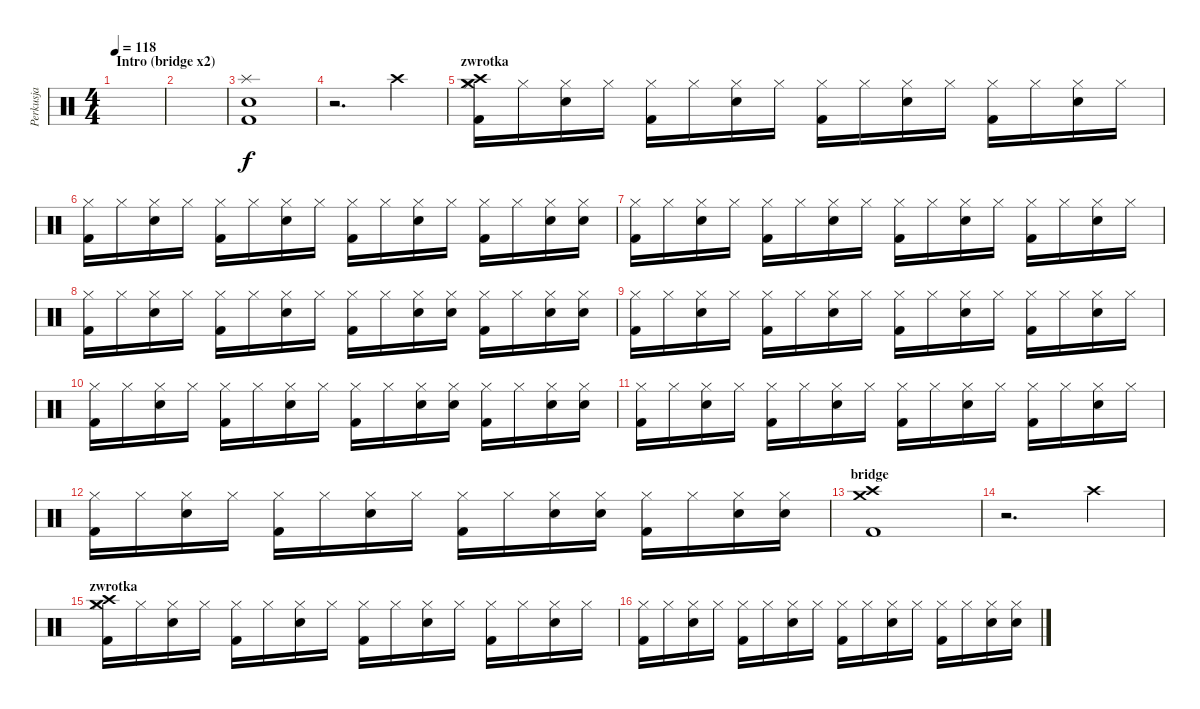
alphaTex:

\track ("Perkusja" "Perkusja") {instrument percussion}
\staff {score}
\articulation defaults
\ts (4 4)
\section ("" "Intro (bridge x2)")
\tempo 118
\clef neutral
\ks c
|
|
("Splash (hit)" "Snare (hit) 2" "Kick (hit) 2").1 |
r.2{d} "Crash high (hit)".4 |
\section ("" "zwrotka")
("Crash medium (hit)" "Crash high (hit)" "Kick (hit) 2" "Hi-Hat (closed)").16 "Hi-Hat (closed)".16 ("Electric Snare (hit)" "Hi-Hat (closed)").16 "Hi-Hat (closed)".16 ("Kick (hit) 2" "Hi-Hat (closed)").16 "Hi-Hat (closed)".16 ("Electric Snare (hit)" "Hi-Hat (closed)").16 "Hi-Hat (closed)".16 ("Kick (hit) 2" "Hi-Hat (closed)").16 "Hi-Hat (closed)".16 ("Electric Snare (hit)" "Hi-Hat (closed)").16 "Hi-Hat (closed)".16 ("Kick (hit) 2" "Hi-Hat (closed)").16 "Hi-Hat (closed)".16 ("Electric Snare (hit)" "Hi-Hat (closed)").16 "Hi-Hat (closed)".16 |
("Kick (hit) 2" "Hi-Hat (closed)").16 "Hi-Hat (closed)".16 ("Electric Snare (hit)" "Hi-Hat (closed)").16 "Hi-Hat (closed)".16 ("Kick (hit) 2" "Hi-Hat (closed)").16 "Hi-Hat (closed)".16 ("Electric Snare (hit)" "Hi-Hat (closed)").16 "Hi-Hat (closed)".16 ("Kick (hit) 2" "Hi-Hat (closed)").16 "Hi-Hat (closed)".16 ("Electric Snare (hit)" "Hi-Hat (closed)").16 "Hi-Hat (closed)".16 ("Kick (hit) 2" "Hi-Hat (closed)").16 "Hi-Hat (closed)".16 ("Electric Snare (hit)" "Hi-Hat (closed)").16 ("Electric Snare (hit)" "Hi-Hat (closed)").16 |
("Kick (hit) 2" "Hi-Hat (closed)").16 "Hi-Hat (closed)".16 ("Electric Snare (hit)" "Hi-Hat (closed)").16 "Hi-Hat (closed)".16 ("Kick (hit) 2" "Hi-Hat (closed)").16 "Hi-Hat (closed)".16 ("Electric Snare (hit)" "Hi-Hat (closed)").16 "Hi-Hat (closed)".16 ("Kick (hit) 2" "Hi-Hat (closed)").16 "Hi-Hat (closed)".16 ("Electric Snare (hit)" "Hi-Hat (closed)").16 "Hi-Hat (closed)".16 ("Kick (hit) 2" "Hi-Hat (closed)").16 "Hi-Hat (closed)".16 ("Electric Snare (hit)" "Hi-Hat (closed)").16 "Hi-Hat (closed)".16 |
("Kick (hit) 2" "Hi-Hat (closed)").16 "Hi-Hat (closed)".16 ("Electric Snare (hit)" "Hi-Hat (closed)").16 "Hi-Hat (closed)".16 ("Kick (hit) 2" "Hi-Hat (closed)").16 "Hi-Hat (closed)".16 ("Electric Snare (hit)" "Hi-Hat (closed)").16 "Hi-Hat (closed)".16 ("Kick (hit) 2" "Hi-Hat (closed)").16 "Hi-Hat (closed)".16 ("Electric Snare (hit)" "Hi-Hat (closed)").16 ("Electric Snare (hit)" "Hi-Hat (closed)").16 ("Kick (hit) 2" "Hi-Hat (closed)").16 "Hi-Hat (closed)".16 ("Electric Snare (hit)" "Hi-Hat (closed)").16 ("Electric Snare (hit)" "Hi-Hat (closed)").16 |
("Kick (hit) 2" "Hi-Hat (closed)").16 "Hi-Hat (closed)".16 ("Electric Snare (hit)" "Hi-Hat (closed)").16 "Hi-Hat (closed)".16 ("Kick (hit) 2" "Hi-Hat (closed)").16 "Hi-Hat (closed)".16 ("Electric Snare (hit)" "Hi-Hat (closed)").16 "Hi-Hat (closed)".16 ("Kick (hit) 2" "Hi-Hat (closed)").16 "Hi-Hat (closed)".16 ("Electric Snare (hit)" "Hi-Hat (closed)").16 "Hi-Hat (closed)".16 ("Kick (hit) 2" "Hi-Hat (closed)").16 "Hi-Hat (closed)".16 ("Electric Snare (hit)" "Hi-Hat (closed)").16 "Hi-Hat (closed)".16 |
("Kick (hit) 2" "Hi-Hat (closed)").16 "Hi-Hat (closed)".16 ("Electric Snare (hit)" "Hi-Hat (closed)").16 "Hi-Hat (closed)".16 ("Kick (hit) 2" "Hi-Hat (closed)").16 "Hi-Hat (closed)".16 ("Electric Snare (hit)" "Hi-Hat (closed)").16 "Hi-Hat (closed)".16 ("Kick (hit) 2" "Hi-Hat (closed)").16 "Hi-Hat (closed)".16 ("Electric Snare (hit)" "Hi-Hat (closed)").16 ("Electric Snare (hit)" "Hi-Hat (closed)").16 ("Kick (hit) 2" "Hi-Hat (closed)").16 "Hi-Hat (closed)".16 ("Electric Snare (hit)" "Hi-Hat (closed)").16 ("Electric Snare (hit)" "Hi-Hat (closed)").16 |
("Kick (hit) 2" "Hi-Hat (closed)").16 "Hi-Hat (closed)".16 ("Electric Snare (hit)" "Hi-Hat (closed)").16 "Hi-Hat (closed)".16 ("Kick (hit) 2" "Hi-Hat (closed)").16 "Hi-Hat (closed)".16 ("Electric Snare (hit)" "Hi-Hat (closed)").16 "Hi-Hat (closed)".16 ("Kick (hit) 2" "Hi-Hat (closed)").16 "Hi-Hat (closed)".16 ("Electric Snare (hit)" "Hi-Hat (closed)").16 "Hi-Hat (closed)".16 ("Kick (hit) 2" "Hi-Hat (closed)").16 "Hi-Hat (closed)".16 ("Electric Snare (hit)" "Hi-Hat (closed)").16 "Hi-Hat (closed)".16 |
("Kick (hit) 2" "Hi-Hat (closed)").16 "Hi-Hat (closed)".16 ("Electric Snare (hit)" "Hi-Hat (closed)").16 "Hi-Hat (closed)".16 ("Kick (hit) 2" "Hi-Hat (closed)").16 "Hi-Hat (closed)".16 ("Electric Snare (hit)" "Hi-Hat (closed)").16 "Hi-Hat (closed)".16 ("Kick (hit) 2" "Hi-Hat (closed)").16 "Hi-Hat (closed)".16 ("Electric Snare (hit)" "Hi-Hat (closed)").16 ("Electric Snare (hit)" "Hi-Hat (closed)").16 ("Kick (hit) 2" "Hi-Hat (closed)").16 "Hi-Hat (closed)".16 ("Electric Snare (hit)" "Hi-Hat (closed)").16 ("Electric Snare (hit)" "Hi-Hat (closed)").16 |
\section ("" "bridge")
("Crash medium (hit)" "Crash high (hit)" "Kick (hit) 2").1 |
r.2{d} "Crash high (hit)".4 |
\section ("" "zwrotka")
("Crash medium (hit)" "Crash high (hit)" "Kick (hit) 2" "Hi-Hat (closed)").16 "Hi-Hat (closed)".16 ("Electric Snare (hit)" "Hi-Hat (closed)").16 "Hi-Hat (closed)".16 ("Kick (hit) 2" "Hi-Hat (closed)").16 "Hi-Hat (closed)".16 ("Electric Snare (hit)" "Hi-Hat (closed)").16 "Hi-Hat (closed)".16 ("Kick (hit) 2" "Hi-Hat (closed)").16 "Hi-Hat (closed)".16 ("Electric Snare (hit)" "Hi-Hat (closed)").16 "Hi-Hat (closed)".16 ("Kick (hit) 2" "Hi-Hat (closed)").16 "Hi-Hat (closed)".16 ("Electric Snare (hit)" "Hi-Hat (closed)").16 "Hi-Hat (closed)".16 |
("Kick (hit) 2" "Hi-Hat (closed)").16 "Hi-Hat (closed)".16 ("Electric Snare (hit)" "Hi-Hat (closed)").16 "Hi-Hat (closed)".16 ("Kick (hit) 2" "Hi-Hat (closed)").16 "Hi-Hat (closed)".16 ("Electric Snare (hit)" "Hi-Hat (closed)").16 "Hi-Hat (closed)".16 ("Kick (hit) 2" "Hi-Hat (closed)").16 "Hi-Hat (closed)".16 ("Electric Snare (hit)" "Hi-Hat (closed)").16 "Hi-Hat (closed)".16 ("Kick (hit) 2" "Hi-Hat (closed)").16 "Hi-Hat (closed)".16 ("Electric Snare (hit)" "Hi-Hat (closed)").16 ("Electric Snare (hit)" "Hi-Hat (closed)").16
